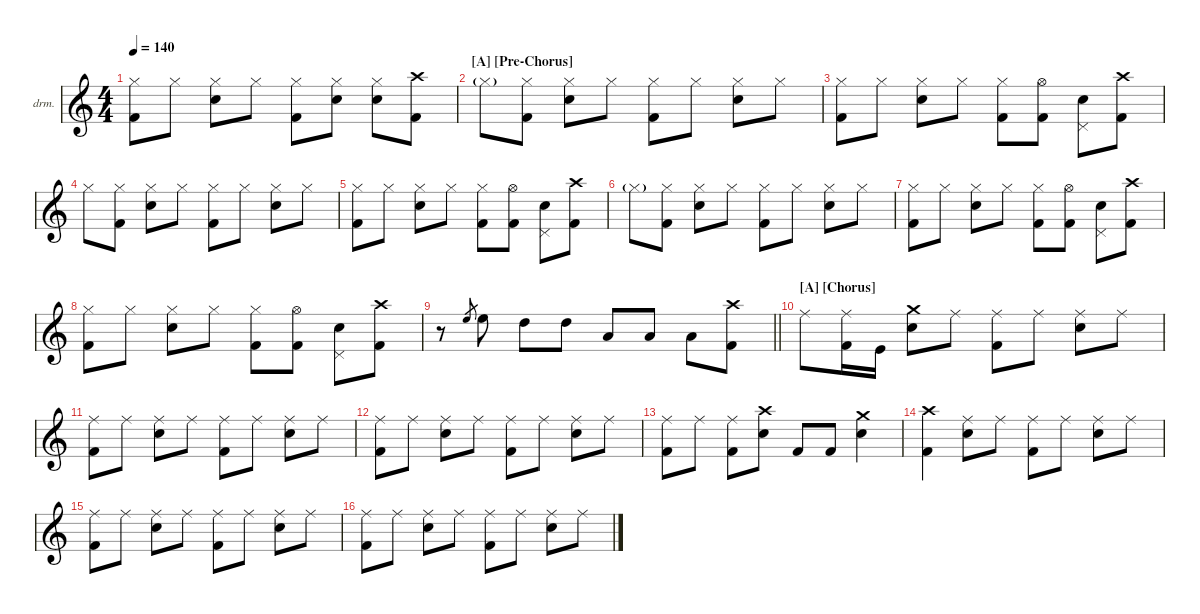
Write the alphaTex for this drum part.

\defaultSystemsLayout 4
\hideDynamics
\bracketExtendMode nobrackets
\firstSystemTrackNameOrientation horizontal
\track ("Sepehr Tajbakhsh {Nick Menza}" "drm.") {instrument percussion}
\staff {score}
\articulation defaults
\ts (4 4)
\tempo 140
\clef g2
\ks c
("Hi-Hat (closed)" "Kick (hit) 2").8{dy f beam Down} "Hi-Hat (closed)".8{beam Down} ("Hi-Hat (closed)" "Snare (hit) 2").8{beam Down} "Hi-Hat (closed)".8{beam Down} ("Hi-Hat (closed)" "Kick (hit) 2").8{beam Down} ("Hi-Hat (closed)" "Snare (hit) 2").8{beam Down} ("Hi-Hat (closed)" "Snare (hit) 2").8{beam Down} ("Crash high (hit)" "Kick (hit) 2").8{beam Down} |
\section ("A" "[Pre-Chorus]")
"Hi-Hat (closed)"{g}.8{beam Down} ("Hi-Hat (closed)" "Kick (hit) 2").8{beam Down} ("Hi-Hat (closed)" "Snare (hit) 2").8{beam Down} "Hi-Hat (closed)".8{beam Down} ("Hi-Hat (closed)" "Kick (hit) 2").8{beam Down} "Hi-Hat (closed)".8{beam Down} ("Hi-Hat (closed)" "Snare (hit) 2").8{beam Down} "Hi-Hat (closed)".8{beam Down} |
("Hi-Hat (closed)" "Kick (hit) 2").8{beam Down} "Hi-Hat (closed)".8{beam Down} ("Hi-Hat (closed)" "Snare (hit) 2").8{beam Down} "Hi-Hat (closed)".8{beam Down} ("Hi-Hat (closed)" "Kick (hit) 2").8{beam Down} ("Hi-Hat (open)" "Kick (hit) 2").8{beam Down} ("Snare (hit) 2" "Pedal Hi-Hat (hit)").8{beam Down} ("Crash high (hit)" "Kick (hit) 2").8{beam Down} |
"Hi-Hat (closed)".8{beam Down} ("Hi-Hat (closed)" "Kick (hit) 2").8{beam Down} ("Hi-Hat (closed)" "Snare (hit) 2").8{beam Down} "Hi-Hat (closed)".8{beam Down} ("Hi-Hat (closed)" "Kick (hit) 2").8{beam Down} "Hi-Hat (closed)".8{beam Down} ("Hi-Hat (closed)" "Snare (hit) 2").8{beam Down} "Hi-Hat (closed)".8{beam Down} |
("Hi-Hat (closed)" "Kick (hit) 2").8{beam Down} "Hi-Hat (closed)".8{beam Down} ("Hi-Hat (closed)" "Snare (hit) 2").8{beam Down} "Hi-Hat (closed)".8{beam Down} ("Hi-Hat (closed)" "Kick (hit) 2").8{beam Down} ("Hi-Hat (open)" "Kick (hit) 2").8{beam Down} ("Snare (hit) 2" "Pedal Hi-Hat (hit)").8{beam Down} ("Crash high (hit)" "Kick (hit) 2").8{beam Down} |
"Hi-Hat (closed)"{g}.8{beam Down} ("Hi-Hat (closed)" "Kick (hit) 2").8{beam Down} ("Hi-Hat (closed)" "Snare (hit) 2").8{beam Down} "Hi-Hat (closed)".8{beam Down} ("Hi-Hat (closed)" "Kick (hit) 2").8{beam Down} "Hi-Hat (closed)".8{beam Down} ("Hi-Hat (closed)" "Snare (hit) 2").8{beam Down} "Hi-Hat (closed)".8{beam Down} |
("Hi-Hat (closed)" "Kick (hit) 2").8{beam Down} "Hi-Hat (closed)".8{beam Down} ("Hi-Hat (closed)" "Snare (hit) 2").8{beam Down} "Hi-Hat (closed)".8{beam Down} ("Hi-Hat (closed)" "Kick (hit) 2").8{beam Down} ("Hi-Hat (open)" "Kick (hit) 2").8{beam Down} ("Snare (hit) 2" "Pedal Hi-Hat (hit)").8{beam Down} ("Crash high (hit)" "Kick (hit) 2").8{beam Down} |
("Hi-Hat (closed)" "Kick (hit) 2").8{beam Down} "Hi-Hat (closed)".8{beam Down} ("Hi-Hat (closed)" "Snare (hit) 2").8{beam Down} "Hi-Hat (closed)".8{beam Down} ("Hi-Hat (closed)" "Kick (hit) 2").8{beam Down} ("Hi-Hat (open)" "Kick (hit) 2").8{beam Down} ("Snare (hit) 2" "Pedal Hi-Hat (hit)").8{beam Down} ("Crash high (hit)" "Kick (hit) 2").8{beam Down} |
\barLineRight lightlight
r.8{beam Down} "High Floor Tom (hit)".8{gr beam Up} "High Floor Tom (hit)".8{beam Down} "High Tom (hit)".8{beam Down} "High Tom (hit)".8{beam Down} "Low Tom (hit)".8{beam Up} "Low Tom (hit)".8{beam Up} "Low Tom (hit)".8{beam Down} ("Crash high (hit)" "Kick (hit) 2").8{beam Down} |
\section ("A" "[Chorus]")
"Ride (middle)".8{beam Down} ("Ride (middle)" "Kick (hit) 2").16{beam Down} "Kick (hit)".16{dy fff beam Down} ("Crash medium (hit)" "Snare (hit) 2").8{dy f beam Down} "Ride (middle)".8{beam Down} ("Ride (middle)" "Kick (hit) 2").8{beam Down} "Ride (middle)".8{beam Down} ("Ride (middle)" "Snare (hit) 2").8{beam Down} "Ride (middle)".8{beam Down} |
("Ride (middle)" "Kick (hit) 2").8{beam Down} "Ride (middle)".8{beam Down} ("Ride (middle)" "Snare (hit) 2").8{beam Down} "Ride (middle)".8{beam Down} ("Ride (middle)" "Kick (hit) 2").8{beam Down} "Ride (middle)".8{beam Down} ("Ride (middle)" "Snare (hit) 2").8{beam Down} "Ride (middle)".8{beam Down} |
("Ride (middle)" "Kick (hit) 2").8{beam Down} "Ride (middle)".8{beam Down} ("Ride (middle)" "Snare (hit) 2").8{beam Down} "Ride (middle)".8{beam Down} ("Ride (middle)" "Kick (hit) 2").8{beam Down} "Ride (middle)".8{beam Down} ("Ride (middle)" "Snare (hit) 2").8{beam Down} "Ride (middle)".8{beam Down} |
("Ride (middle)" "Kick (hit) 2").8{beam Down} "Ride (middle)".8{beam Down} ("Ride (middle)" "Kick (hit) 2").8{beam Down} ("Crash high (hit)" "Snare (hit) 2").8{beam Down} "Kick (hit) 2".8{dy fff beam Up} "Kick (hit) 2".8{beam Up} ("Crash medium (hit)" "Snare (hit) 2").4{dy f beam Down} |
("Crash high (hit)" "Kick (hit) 2").4{beam Down} ("Ride (middle)" "Snare (hit) 2").8{beam Down} "Ride (middle)".8{beam Down} ("Ride (middle)" "Kick (hit) 2").8{beam Down} "Ride (middle)".8{beam Down} ("Ride (middle)" "Snare (hit) 2").8{beam Down} "Ride (middle)".8{beam Down} |
("Ride (middle)" "Kick (hit) 2").8{beam Down} "Ride (middle)".8{beam Down} ("Ride (middle)" "Snare (hit) 2").8{beam Down} "Ride (middle)".8{beam Down} ("Ride (middle)" "Kick (hit) 2").8{beam Down} "Ride (middle)".8{beam Down} ("Ride (middle)" "Snare (hit) 2").8{beam Down} "Ride (middle)".8{beam Down} |
("Ride (middle)" "Kick (hit) 2").8{beam Down} "Ride (middle)".8{beam Down} ("Ride (middle)" "Snare (hit) 2").8{beam Down} "Ride (middle)".8{beam Down} ("Ride (middle)" "Kick (hit) 2").8{beam Down} "Ride (middle)".8{beam Down} ("Ride (middle)" "Snare (hit) 2").8{beam Down} "Ride (middle)".8{beam Down}
